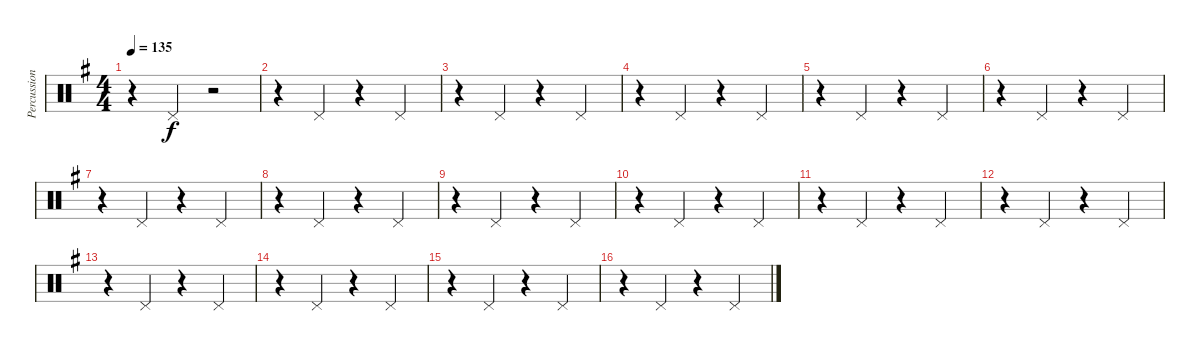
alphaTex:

\track ("Percussion" "Percussion") {instrument percussion}
\staff {score}
\articulation defaults
\ts (4 4)
\tempo 135
\clef neutral
\ks g
r.4{dy f} "Pedal Hi-Hat (hit)".4 r.2 |
r.4 "Pedal Hi-Hat (hit)".4 r.4 "Pedal Hi-Hat (hit)".4 |
r.4 "Pedal Hi-Hat (hit)".4 r.4 "Pedal Hi-Hat (hit)".4 |
r.4 "Pedal Hi-Hat (hit)".4 r.4 "Pedal Hi-Hat (hit)".4 |
r.4 "Pedal Hi-Hat (hit)".4 r.4 "Pedal Hi-Hat (hit)".4 |
r.4 "Pedal Hi-Hat (hit)".4 r.4 "Pedal Hi-Hat (hit)".4 |
r.4 "Pedal Hi-Hat (hit)".4 r.4 "Pedal Hi-Hat (hit)".4 |
r.4 "Pedal Hi-Hat (hit)".4 r.4 "Pedal Hi-Hat (hit)".4 |
r.4 "Pedal Hi-Hat (hit)".4 r.4 "Pedal Hi-Hat (hit)".4 |
r.4 "Pedal Hi-Hat (hit)".4 r.4 "Pedal Hi-Hat (hit)".4 |
r.4 "Pedal Hi-Hat (hit)".4 r.4 "Pedal Hi-Hat (hit)".4 |
r.4 "Pedal Hi-Hat (hit)".4 r.4 "Pedal Hi-Hat (hit)".4 |
r.4 "Pedal Hi-Hat (hit)".4 r.4 "Pedal Hi-Hat (hit)".4 |
r.4 "Pedal Hi-Hat (hit)".4 r.4 "Pedal Hi-Hat (hit)".4 |
r.4 "Pedal Hi-Hat (hit)".4 r.4 "Pedal Hi-Hat (hit)".4 |
r.4 "Pedal Hi-Hat (hit)".4 r.4 "Pedal Hi-Hat (hit)".4
